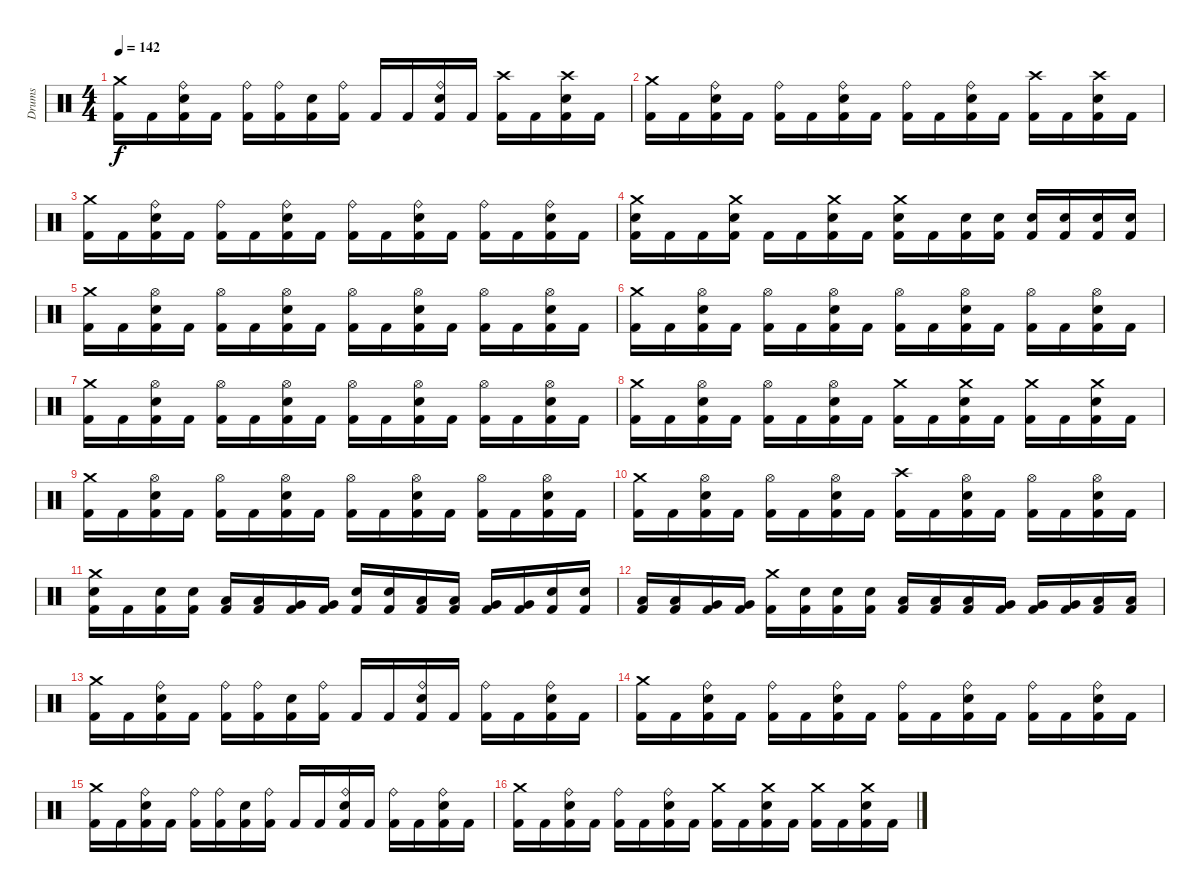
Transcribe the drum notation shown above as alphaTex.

\track ("Drums" "Drums") {instrument percussion}
\staff {score}
\articulation defaults
\ts (4 4)
\tempo 142
\clef neutral
\ks c
("Crash medium (hit)" "Kick (hit) 2").16{dy f} "Kick (hit) 2".16 ("Ride (bell)" "Electric Snare (hit)" "Kick (hit) 2").16 "Kick (hit) 2".16 ("Ride (bell)" "Kick (hit) 2").16 ("Ride (bell)" "Kick (hit) 2").16 ("Electric Snare (hit)" "Kick (hit) 2").16 ("Ride (bell)" "Kick (hit) 2").16 "Kick (hit) 2".16 "Kick (hit) 2".16 ("Ride (bell)" "Electric Snare (hit)" "Kick (hit) 2").16 "Kick (hit) 2".16 ("Crash high (hit)" "Kick (hit) 2").16 "Kick (hit) 2".16 ("Crash high (hit)" "Electric Snare (hit)" "Kick (hit) 2").16 "Kick (hit) 2".16 |
("Crash medium (hit)" "Kick (hit) 2").16 "Kick (hit) 2".16 ("Ride (bell)" "Electric Snare (hit)" "Kick (hit) 2").16 "Kick (hit) 2".16 ("Ride (bell)" "Kick (hit) 2").16 "Kick (hit) 2".16 ("Ride (bell)" "Electric Snare (hit)" "Kick (hit) 2").16 "Kick (hit) 2".16 ("Ride (bell)" "Kick (hit) 2").16 "Kick (hit) 2".16 ("Ride (bell)" "Electric Snare (hit)" "Kick (hit) 2").16 "Kick (hit) 2".16 ("Crash high (hit)" "Kick (hit) 2").16 "Kick (hit) 2".16 ("Crash high (hit)" "Electric Snare (hit)" "Kick (hit) 2").16 "Kick (hit) 2".16 |
("Crash medium (hit)" "Kick (hit) 2").16 "Kick (hit) 2".16 ("Ride (bell)" "Electric Snare (hit)" "Kick (hit) 2").16 "Kick (hit) 2".16 ("Ride (bell)" "Kick (hit) 2").16 "Kick (hit) 2".16 ("Ride (bell)" "Electric Snare (hit)" "Kick (hit) 2").16 "Kick (hit) 2".16 ("Ride (bell)" "Kick (hit) 2").16 "Kick (hit) 2".16 ("Ride (bell)" "Electric Snare (hit)" "Kick (hit) 2").16 "Kick (hit) 2".16 ("Ride (bell)" "Kick (hit) 2").16 "Kick (hit) 2".16 ("Ride (bell)" "Electric Snare (hit)" "Kick (hit) 2").16 "Kick (hit) 2".16 |
("Crash medium (hit)" "Electric Snare (hit)" "Kick (hit) 2").16 "Kick (hit) 2".16 "Kick (hit) 2".16 ("Crash medium (hit)" "Electric Snare (hit)" "Kick (hit) 2").16 "Kick (hit) 2".16 "Kick (hit) 2".16 ("Crash medium (hit)" "Electric Snare (hit)" "Kick (hit) 2").16 "Kick (hit) 2".16 ("Crash medium (hit)" "Electric Snare (hit)" "Kick (hit) 2").16 "Kick (hit) 2".16 ("Electric Snare (hit)" "Kick (hit) 2").16 ("Electric Snare (hit)" "Kick (hit) 2").16 ("Electric Snare (hit)" "Kick (hit) 2").16 ("Electric Snare (hit)" "Kick (hit) 2").16 ("Electric Snare (hit)" "Kick (hit) 2").16 ("Electric Snare (hit)" "Kick (hit) 2").16 |
("Crash medium (hit)" "Kick (hit) 2").16 "Kick (hit) 2".16 ("Hi-Hat (open)" "Electric Snare (hit)" "Kick (hit) 2").16 "Kick (hit) 2".16 ("Hi-Hat (open)" "Kick (hit) 2").16 "Kick (hit) 2".16 ("Hi-Hat (open)" "Electric Snare (hit)" "Kick (hit) 2").16 "Kick (hit) 2".16 ("Hi-Hat (open)" "Kick (hit) 2").16 "Kick (hit) 2".16 ("Hi-Hat (open)" "Electric Snare (hit)" "Kick (hit) 2").16 "Kick (hit) 2".16 ("Hi-Hat (open)" "Kick (hit) 2").16 "Kick (hit) 2".16 ("Hi-Hat (open)" "Electric Snare (hit)" "Kick (hit) 2").16 "Kick (hit) 2".16 |
("Crash medium (hit)" "Kick (hit) 2").16 "Kick (hit) 2".16 ("Hi-Hat (open)" "Electric Snare (hit)" "Kick (hit) 2").16 "Kick (hit) 2".16 ("Hi-Hat (open)" "Kick (hit) 2").16 "Kick (hit) 2".16 ("Hi-Hat (open)" "Electric Snare (hit)" "Kick (hit) 2").16 "Kick (hit) 2".16 ("Hi-Hat (open)" "Kick (hit) 2").16 "Kick (hit) 2".16 ("Hi-Hat (open)" "Electric Snare (hit)" "Kick (hit) 2").16 "Kick (hit) 2".16 ("Hi-Hat (open)" "Kick (hit) 2").16 "Kick (hit) 2".16 ("Hi-Hat (open)" "Electric Snare (hit)" "Kick (hit) 2").16 "Kick (hit) 2".16 |
("Crash medium (hit)" "Kick (hit) 2").16 "Kick (hit) 2".16 ("Hi-Hat (open)" "Electric Snare (hit)" "Kick (hit) 2").16 "Kick (hit) 2".16 ("Hi-Hat (open)" "Kick (hit) 2").16 "Kick (hit) 2".16 ("Hi-Hat (open)" "Electric Snare (hit)" "Kick (hit) 2").16 "Kick (hit) 2".16 ("Hi-Hat (open)" "Kick (hit) 2").16 "Kick (hit) 2".16 ("Hi-Hat (open)" "Electric Snare (hit)" "Kick (hit) 2").16 "Kick (hit) 2".16 ("Hi-Hat (open)" "Kick (hit) 2").16 "Kick (hit) 2".16 ("Hi-Hat (open)" "Electric Snare (hit)" "Kick (hit) 2").16 "Kick (hit) 2".16 |
("Crash medium (hit)" "Kick (hit) 2").16 "Kick (hit) 2".16 ("Hi-Hat (open)" "Electric Snare (hit)" "Kick (hit) 2").16 "Kick (hit) 2".16 ("Hi-Hat (open)" "Kick (hit) 2").16 "Kick (hit) 2".16 ("Hi-Hat (open)" "Electric Snare (hit)" "Kick (hit) 2").16 "Kick (hit) 2".16 ("Crash medium (hit)" "Kick (hit) 2").16 "Kick (hit) 2".16 ("Crash medium (hit)" "Electric Snare (hit)" "Kick (hit) 2").16 "Kick (hit) 2".16 ("Crash medium (hit)" "Kick (hit) 2").16 "Kick (hit) 2".16 ("Crash medium (hit)" "Electric Snare (hit)" "Kick (hit) 2").16 "Kick (hit) 2".16 |
("Crash medium (hit)" "Kick (hit) 2").16 "Kick (hit) 2".16 ("Hi-Hat (open)" "Electric Snare (hit)" "Kick (hit) 2").16 "Kick (hit) 2".16 ("Hi-Hat (open)" "Kick (hit) 2").16 "Kick (hit) 2".16 ("Hi-Hat (open)" "Electric Snare (hit)" "Kick (hit) 2").16 "Kick (hit) 2".16 ("Hi-Hat (open)" "Kick (hit) 2").16 "Kick (hit) 2".16 ("Hi-Hat (open)" "Electric Snare (hit)" "Kick (hit) 2").16 "Kick (hit) 2".16 ("Hi-Hat (open)" "Kick (hit) 2").16 "Kick (hit) 2".16 ("Hi-Hat (open)" "Electric Snare (hit)" "Kick (hit) 2").16 "Kick (hit) 2".16 |
("Crash medium (hit)" "Kick (hit) 2").16 "Kick (hit) 2".16 ("Hi-Hat (open)" "Electric Snare (hit)" "Kick (hit) 2").16 "Kick (hit) 2".16 ("Hi-Hat (open)" "Kick (hit) 2").16 "Kick (hit) 2".16 ("Hi-Hat (open)" "Electric Snare (hit)" "Kick (hit) 2").16 "Kick (hit) 2".16 ("Crash high (hit)" "Kick (hit) 2").16 "Kick (hit) 2".16 ("Hi-Hat (open)" "Electric Snare (hit)" "Kick (hit) 2").16 "Kick (hit) 2".16 ("Hi-Hat (open)" "Kick (hit) 2").16 "Kick (hit) 2".16 ("Hi-Hat (open)" "Electric Snare (hit)" "Kick (hit) 2").16 "Kick (hit) 2".16 |
("Crash medium (hit)" "Electric Snare (hit)" "Kick (hit) 2").16 "Kick (hit) 2".16 ("Electric Snare (hit)" "Kick (hit) 2").16 ("Electric Snare (hit)" "Kick (hit) 2").16 ("Low Tom (hit)" "Kick (hit) 2").16 ("Low Tom (hit)" "Kick (hit) 2").16 ("Very Low Tom (hit)" "Kick (hit) 2").16 ("Very Low Tom (hit)" "Kick (hit) 2").16 ("Electric Snare (hit)" "Kick (hit) 2").16 ("Electric Snare (hit)" "Kick (hit) 2").16 ("Low Tom (hit)" "Kick (hit) 2").16 ("Low Tom (hit)" "Kick (hit) 2").16 ("Very Low Tom (hit)" "Kick (hit) 2").16 ("Very Low Tom (hit)" "Kick (hit) 2").16 ("Electric Snare (hit)" "Kick (hit) 2").16 ("Electric Snare (hit)" "Kick (hit) 2").16 |
("Low Tom (hit)" "Kick (hit) 2").16 ("Low Tom (hit)" "Kick (hit) 2").16 ("Very Low Tom (hit)" "Kick (hit) 2").16 ("Very Low Tom (hit)" "Kick (hit) 2").16 ("Crash medium (hit)" "Kick (hit) 2").16 ("Electric Snare (hit)" "Kick (hit) 2").16 ("Electric Snare (hit)" "Kick (hit) 2").16 ("Electric Snare (hit)" "Kick (hit) 2").16 ("Low Tom (hit)" "Kick (hit) 2").16 ("Low Tom (hit)" "Kick (hit) 2").16 ("Low Tom (hit)" "Kick (hit) 2").16 ("Very Low Tom (hit)" "Kick (hit) 2").16 ("Very Low Tom (hit)" "Kick (hit) 2").16 ("Very Low Tom (hit)" "Kick (hit) 2").16 ("Low Floor Tom (hit)" "Kick (hit) 2").16 ("Low Floor Tom (hit)" "Kick (hit) 2").16 |
("Crash medium (hit)" "Kick (hit) 2").16 "Kick (hit) 2".16 ("Ride (bell)" "Electric Snare (hit)" "Kick (hit) 2").16 "Kick (hit) 2".16 ("Ride (bell)" "Kick (hit) 2").16 ("Ride (bell)" "Kick (hit) 2").16 ("Electric Snare (hit)" "Kick (hit) 2").16 ("Ride (bell)" "Kick (hit) 2").16 "Kick (hit) 2".16 "Kick (hit) 2".16 ("Ride (bell)" "Electric Snare (hit)" "Kick (hit) 2").16 "Kick (hit) 2".16 ("Ride (bell)" "Kick (hit) 2").16 "Kick (hit) 2".16 ("Ride (bell)" "Electric Snare (hit)" "Kick (hit) 2").16 "Kick (hit) 2".16 |
("Crash medium (hit)" "Kick (hit) 2").16 "Kick (hit) 2".16 ("Ride (bell)" "Electric Snare (hit)" "Kick (hit) 2").16 "Kick (hit) 2".16 ("Ride (bell)" "Kick (hit) 2").16 "Kick (hit) 2".16 ("Ride (bell)" "Electric Snare (hit)" "Kick (hit) 2").16 "Kick (hit) 2".16 ("Ride (bell)" "Kick (hit) 2").16 "Kick (hit) 2".16 ("Ride (bell)" "Electric Snare (hit)" "Kick (hit) 2").16 "Kick (hit) 2".16 ("Ride (bell)" "Kick (hit) 2").16 "Kick (hit) 2".16 ("Ride (bell)" "Electric Snare (hit)" "Kick (hit) 2").16 "Kick (hit) 2".16 |
("Crash medium (hit)" "Kick (hit) 2").16 "Kick (hit) 2".16 ("Ride (bell)" "Electric Snare (hit)" "Kick (hit) 2").16 "Kick (hit) 2".16 ("Ride (bell)" "Kick (hit) 2").16 ("Ride (bell)" "Kick (hit) 2").16 ("Electric Snare (hit)" "Kick (hit) 2").16 ("Ride (bell)" "Kick (hit) 2").16 "Kick (hit) 2".16 "Kick (hit) 2".16 ("Ride (bell)" "Electric Snare (hit)" "Kick (hit) 2").16 "Kick (hit) 2".16 ("Ride (bell)" "Kick (hit) 2").16 "Kick (hit) 2".16 ("Ride (bell)" "Electric Snare (hit)" "Kick (hit) 2").16 "Kick (hit) 2".16 |
("Crash medium (hit)" "Kick (hit) 2").16 "Kick (hit) 2".16 ("Ride (bell)" "Electric Snare (hit)" "Kick (hit) 2").16 "Kick (hit) 2".16 ("Ride (bell)" "Kick (hit) 2").16 "Kick (hit) 2".16 ("Ride (bell)" "Electric Snare (hit)" "Kick (hit) 2").16 "Kick (hit) 2".16 ("Crash medium (hit)" "Kick (hit) 2").16 "Kick (hit) 2".16 ("Crash medium (hit)" "Electric Snare (hit)" "Kick (hit) 2").16 "Kick (hit) 2".16 ("Crash medium (hit)" "Kick (hit) 2").16 "Kick (hit) 2".16 ("Crash medium (hit)" "Electric Snare (hit)" "Kick (hit) 2").16 "Kick (hit) 2".16
